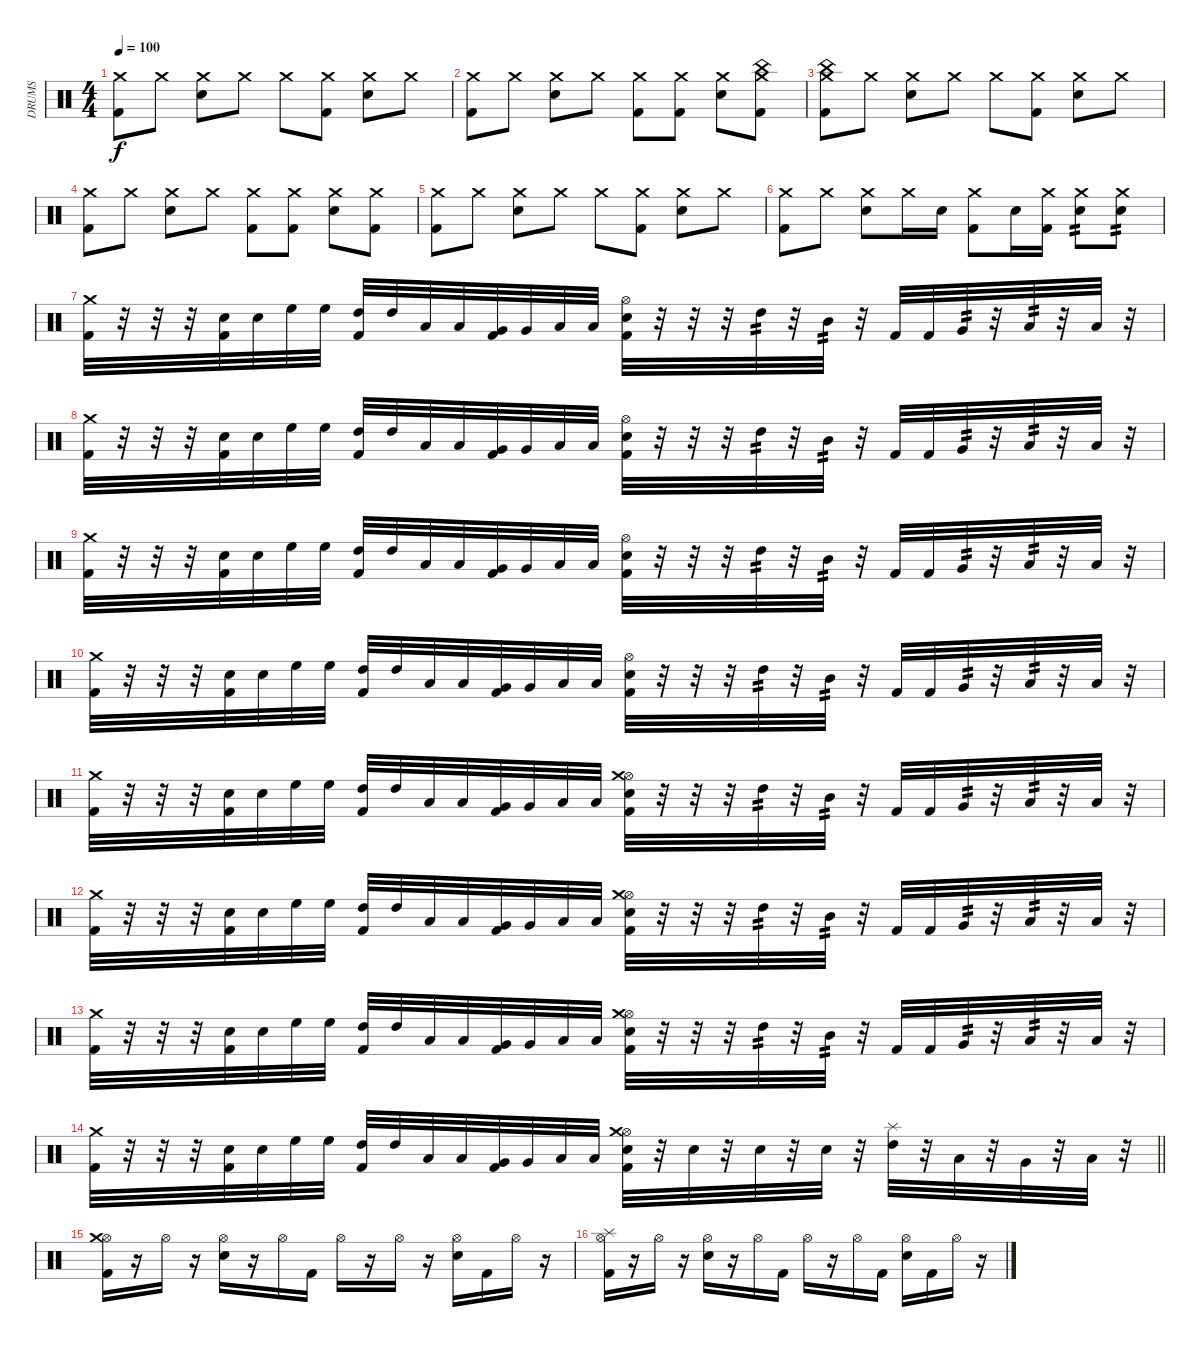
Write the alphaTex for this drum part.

\track ("DRUMS" "DRUMS") {instrument percussion}
\staff {score}
\articulation defaults
\ts (4 4)
\tempo 100
\clef neutral
\ks c
("Crash medium (hit)" "Kick (hit) 2").8{dy f} "Crash medium (hit)".8 ("Crash medium (hit)" "Electric Snare (hit)").8 "Crash medium (hit)".8 "Crash medium (hit)".8 ("Crash medium (hit)" "Kick (hit) 2").8 ("Crash medium (hit)" "Electric Snare (hit)").8 "Crash medium (hit)".8 |
("Crash medium (hit)" "Kick (hit) 2").8 "Crash medium (hit)".8 ("Crash medium (hit)" "Electric Snare (hit)").8 "Crash medium (hit)".8 ("Crash medium (hit)" "Kick (hit) 2").8 ("Crash medium (hit)" "Kick (hit) 2").8 ("Crash medium (hit)" "Electric Snare (hit)").8 ("Crash medium (hit)" "China (hit)" "Kick (hit) 2").8 |
("Crash medium (hit)" "China (hit)" "Kick (hit) 2").8 "Crash medium (hit)".8 ("Crash medium (hit)" "Electric Snare (hit)").8 "Crash medium (hit)".8 "Crash medium (hit)".8 ("Crash medium (hit)" "Kick (hit) 2").8 ("Crash medium (hit)" "Electric Snare (hit)").8 "Crash medium (hit)".8 |
("Crash medium (hit)" "Kick (hit) 2").8 "Crash medium (hit)".8 ("Crash medium (hit)" "Electric Snare (hit)").8 "Crash medium (hit)".8 ("Crash medium (hit)" "Kick (hit) 2").8 ("Crash medium (hit)" "Kick (hit) 2").8 ("Crash medium (hit)" "Electric Snare (hit)").8 ("Crash medium (hit)" "Kick (hit) 2").8 |
("Crash medium (hit)" "Kick (hit) 2").8 "Crash medium (hit)".8 ("Crash medium (hit)" "Electric Snare (hit)").8 "Crash medium (hit)".8 "Crash medium (hit)".8 ("Crash medium (hit)" "Kick (hit) 2").8 ("Crash medium (hit)" "Electric Snare (hit)").8 "Crash medium (hit)".8 |
("Crash medium (hit)" "Kick (hit) 2").8 "Crash medium (hit)".8 ("Crash medium (hit)" "Electric Snare (hit)").8 "Crash medium (hit)".16 "Electric Snare (hit)".16 ("Crash medium (hit)" "Kick (hit) 2").8 "Electric Snare (hit)".16 ("Crash medium (hit)" "Kick (hit) 2").16 ("Crash medium (hit)" "Electric Snare (hit)").8{tp 2} ("Crash medium (hit)" "Electric Snare (hit)").8{tp 2} |
("Crash medium (hit)" "Kick (hit) 2").32 r.32 r.32 r.32 ("Electric Snare (hit)" "Kick (hit) 2").32 "Electric Snare (hit)".32 "High Floor Tom (hit)".32 "High Floor Tom (hit)".32 ("High Tom (hit)" "Kick (hit) 2").32 "High Tom (hit)".32 "Low Tom (hit)".32 "Low Tom (hit)".32 ("Very Low Tom (hit)" "Kick (hit) 2").32 "Very Low Tom (hit)".32 "Low Floor Tom (hit)".32 "Low Floor Tom (hit)".32 ("Hi-Hat (open)" "Electric Snare (hit)" "Kick (hit) 2").32 r.32 r.32 r.32 "High Tom (hit)".32{tp 2} r.32 "Mid Tom (hit)".32{tp 2} r.32 "Kick (hit) 2".32 "Kick (hit) 2".32 "Very Low Tom (hit)".32{tp 2} r.32 "Low Floor Tom (hit)".32{tp 2} r.32 "Low Floor Tom (hit)".32 r.32 |
("Crash medium (hit)" "Kick (hit) 2").32 r.32 r.32 r.32 ("Electric Snare (hit)" "Kick (hit) 2").32 "Electric Snare (hit)".32 "High Floor Tom (hit)".32 "High Floor Tom (hit)".32 ("High Tom (hit)" "Kick (hit) 2").32 "High Tom (hit)".32 "Low Tom (hit)".32 "Low Tom (hit)".32 ("Very Low Tom (hit)" "Kick (hit) 2").32 "Very Low Tom (hit)".32 "Low Floor Tom (hit)".32 "Low Floor Tom (hit)".32 ("Hi-Hat (open)" "Electric Snare (hit)" "Kick (hit) 2").32 r.32 r.32 r.32 "High Tom (hit)".32{tp 2} r.32 "Mid Tom (hit)".32{tp 2} r.32 "Kick (hit) 2".32 "Kick (hit) 2".32 "Very Low Tom (hit)".32{tp 2} r.32 "Low Floor Tom (hit)".32{tp 2} r.32 "Low Floor Tom (hit)".32 r.32 |
("Crash medium (hit)" "Kick (hit) 2").32 r.32 r.32 r.32 ("Electric Snare (hit)" "Kick (hit) 2").32 "Electric Snare (hit)".32 "High Floor Tom (hit)".32 "High Floor Tom (hit)".32 ("High Tom (hit)" "Kick (hit) 2").32 "High Tom (hit)".32 "Low Tom (hit)".32 "Low Tom (hit)".32 ("Very Low Tom (hit)" "Kick (hit) 2").32 "Very Low Tom (hit)".32 "Low Floor Tom (hit)".32 "Low Floor Tom (hit)".32 ("Hi-Hat (open)" "Electric Snare (hit)" "Kick (hit) 2").32 r.32 r.32 r.32 "High Tom (hit)".32{tp 2} r.32 "Mid Tom (hit)".32{tp 2} r.32 "Kick (hit) 2".32 "Kick (hit) 2".32 "Very Low Tom (hit)".32{tp 2} r.32 "Low Floor Tom (hit)".32{tp 2} r.32 "Low Floor Tom (hit)".32 r.32 |
("Crash medium (hit)" "Kick (hit) 2").32 r.32 r.32 r.32 ("Electric Snare (hit)" "Kick (hit) 2").32 "Electric Snare (hit)".32 "High Floor Tom (hit)".32 "High Floor Tom (hit)".32 ("High Tom (hit)" "Kick (hit) 2").32 "High Tom (hit)".32 "Low Tom (hit)".32 "Low Tom (hit)".32 ("Very Low Tom (hit)" "Kick (hit) 2").32 "Very Low Tom (hit)".32 "Low Floor Tom (hit)".32 "Low Floor Tom (hit)".32 ("Hi-Hat (open)" "Electric Snare (hit)" "Kick (hit) 2").32 r.32 r.32 r.32 "High Tom (hit)".32{tp 2} r.32 "Mid Tom (hit)".32{tp 2} r.32 "Kick (hit) 2".32 "Kick (hit) 2".32 "Very Low Tom (hit)".32{tp 2} r.32 "Low Floor Tom (hit)".32{tp 2} r.32 "Low Floor Tom (hit)".32 r.32 |
("Crash medium (hit)" "Kick (hit) 2").32 r.32 r.32 r.32 ("Electric Snare (hit)" "Kick (hit) 2").32 "Electric Snare (hit)".32 "High Floor Tom (hit)".32 "High Floor Tom (hit)".32 ("High Tom (hit)" "Kick (hit) 2").32 "High Tom (hit)".32 "Low Tom (hit)".32 "Low Tom (hit)".32 ("Very Low Tom (hit)" "Kick (hit) 2").32 "Very Low Tom (hit)".32 "Low Floor Tom (hit)".32 "Low Floor Tom (hit)".32 ("Hi-Hat (open)" "Electric Snare (hit)" "Crash medium (hit)" "Kick (hit) 2").32 r.32 r.32 r.32 "High Tom (hit)".32{tp 2} r.32 "Mid Tom (hit)".32{tp 2} r.32 "Kick (hit) 2".32 "Kick (hit) 2".32 "Very Low Tom (hit)".32{tp 2} r.32 "Low Floor Tom (hit)".32{tp 2} r.32 "Low Floor Tom (hit)".32 r.32 |
("Crash medium (hit)" "Kick (hit) 2").32 r.32 r.32 r.32 ("Electric Snare (hit)" "Kick (hit) 2").32 "Electric Snare (hit)".32 "High Floor Tom (hit)".32 "High Floor Tom (hit)".32 ("High Tom (hit)" "Kick (hit) 2").32 "High Tom (hit)".32 "Low Tom (hit)".32 "Low Tom (hit)".32 ("Very Low Tom (hit)" "Kick (hit) 2").32 "Very Low Tom (hit)".32 "Low Floor Tom (hit)".32 "Low Floor Tom (hit)".32 ("Hi-Hat (open)" "Electric Snare (hit)" "Crash medium (hit)" "Kick (hit) 2").32 r.32 r.32 r.32 "High Tom (hit)".32{tp 2} r.32 "Mid Tom (hit)".32{tp 2} r.32 "Kick (hit) 2".32 "Kick (hit) 2".32 "Very Low Tom (hit)".32{tp 2} r.32 "Low Floor Tom (hit)".32{tp 2} r.32 "Low Floor Tom (hit)".32 r.32 |
("Crash medium (hit)" "Kick (hit) 2").32 r.32 r.32 r.32 ("Electric Snare (hit)" "Kick (hit) 2").32 "Electric Snare (hit)".32 "High Floor Tom (hit)".32 "High Floor Tom (hit)".32 ("High Tom (hit)" "Kick (hit) 2").32 "High Tom (hit)".32 "Low Tom (hit)".32 "Low Tom (hit)".32 ("Very Low Tom (hit)" "Kick (hit) 2").32 "Very Low Tom (hit)".32 "Low Floor Tom (hit)".32 "Low Floor Tom (hit)".32 ("Hi-Hat (open)" "Electric Snare (hit)" "Crash medium (hit)" "Kick (hit) 2").32 r.32 r.32 r.32 "High Tom (hit)".32{tp 2} r.32 "Mid Tom (hit)".32{tp 2} r.32 "Kick (hit) 2".32 "Kick (hit) 2".32 "Very Low Tom (hit)".32{tp 2} r.32 "Low Floor Tom (hit)".32{tp 2} r.32 "Low Floor Tom (hit)".32 r.32 |
\barLineRight lightlight
("Crash medium (hit)" "Kick (hit) 2").32 r.32 r.32 r.32 ("Electric Snare (hit)" "Kick (hit) 2").32 "Electric Snare (hit)".32 "High Floor Tom (hit)".32 "High Floor Tom (hit)".32 ("High Tom (hit)" "Kick (hit) 2").32 "High Tom (hit)".32 "Low Tom (hit)".32 "Low Tom (hit)".32 ("Very Low Tom (hit)" "Kick (hit) 2").32 "Very Low Tom (hit)".32 "Low Floor Tom (hit)".32 "Low Floor Tom (hit)".32 ("Hi-Hat (open)" "Electric Snare (hit)" "Crash medium (hit)" "Kick (hit) 2").32 r.32 "Electric Snare (hit)".32 r.32 "Electric Snare (hit)".32 r.32 "Electric Snare (hit)".32 r.32 ("Splash (hit)" "High Tom (hit)").32 r.32 "Low Tom (hit)".32 r.32 "Very Low Tom (hit)".32 r.32 "Low Floor Tom (hit)".32 r.32 |
("Hi-Hat (open)" "Crash medium (hit)" "Kick (hit) 2").16 r.16 "Hi-Hat (open)".16 r.16 ("Hi-Hat (open)" "Electric Snare (hit)").16 r.16 "Hi-Hat (open)".16 "Kick (hit) 2".16 "Hi-Hat (open)".16 r.16 "Hi-Hat (open)".16 r.16 ("Hi-Hat (open)" "Electric Snare (hit)").16 "Kick (hit) 2".16 "Hi-Hat (open)".16 r.16 |
("Hi-Hat (open)" "Splash (hit)" "Kick (hit) 2").16 r.16 "Hi-Hat (open)".16 r.16 ("Hi-Hat (open)" "Electric Snare (hit)").16 r.16 "Hi-Hat (open)".16 "Kick (hit) 2".16 "Hi-Hat (open)".16 r.16 "Hi-Hat (open)".16 "Kick (hit) 2".16 ("Hi-Hat (open)" "Electric Snare (hit)").16 "Kick (hit) 2".16 "Hi-Hat (open)".16 r.16
